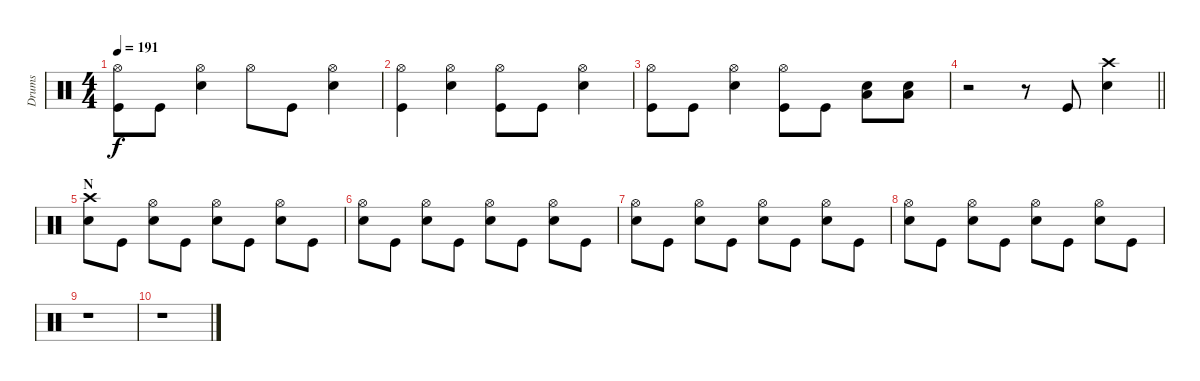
\track ("Drums" "Drums") {instrument percussion}
\staff {score}
\articulation defaults
\ts (4 4)
\tempo 191
\clef neutral
\ks c
("Hi-Hat (open)" "Kick (hit)").8{dy f} "Kick (hit)".8 ("Hi-Hat (open)" "Electric Snare (hit)").4 "Hi-Hat (open)".8 "Kick (hit)".8 ("Hi-Hat (open)" "Electric Snare (hit)").4 |
("Hi-Hat (open)" "Kick (hit)").4 ("Hi-Hat (open)" "Electric Snare (hit)").4 ("Hi-Hat (open)" "Kick (hit)").8 "Kick (hit)".8 ("Hi-Hat (open)" "Electric Snare (hit)").4 |
("Hi-Hat (open)" "Kick (hit)").8 "Kick (hit)".8 ("Hi-Hat (open)" "Electric Snare (hit)").4 ("Hi-Hat (open)" "Kick (hit)").8 "Kick (hit)".8 ("Low Tom (hit)" "Electric Snare (hit)").8 ("Low Tom (hit)" "Electric Snare (hit)").8 |
\barLineRight lightlight
r.2 r.8 "Kick (hit)".8 ("Crash high (hit)" "Electric Snare (hit)").4 |
\section ("" "N")
("Crash high (hit)" "Electric Snare (hit)").8 "Kick (hit)".8 ("Hi-Hat (open)" "Electric Snare (hit)").8 "Kick (hit)".8 ("Hi-Hat (open)" "Electric Snare (hit)").8 "Kick (hit)".8 ("Hi-Hat (open)" "Electric Snare (hit)").8 "Kick (hit)".8 |
("Hi-Hat (open)" "Electric Snare (hit)").8 "Kick (hit)".8 ("Hi-Hat (open)" "Electric Snare (hit)").8 "Kick (hit)".8 ("Hi-Hat (open)" "Electric Snare (hit)").8 "Kick (hit)".8 ("Hi-Hat (open)" "Electric Snare (hit)").8 "Kick (hit)".8 |
("Hi-Hat (open)" "Electric Snare (hit)").8 "Kick (hit)".8 ("Hi-Hat (open)" "Electric Snare (hit)").8 "Kick (hit)".8 ("Hi-Hat (open)" "Electric Snare (hit)").8 "Kick (hit)".8 ("Hi-Hat (open)" "Electric Snare (hit)").8 "Kick (hit)".8 |
("Hi-Hat (open)" "Electric Snare (hit)").8 "Kick (hit)".8 ("Hi-Hat (open)" "Electric Snare (hit)").8 "Kick (hit)".8 ("Hi-Hat (open)" "Electric Snare (hit)").8 "Kick (hit)".8 ("Hi-Hat (open)" "Electric Snare (hit)").8 "Kick (hit)".8 |
r.1 |
r.1
